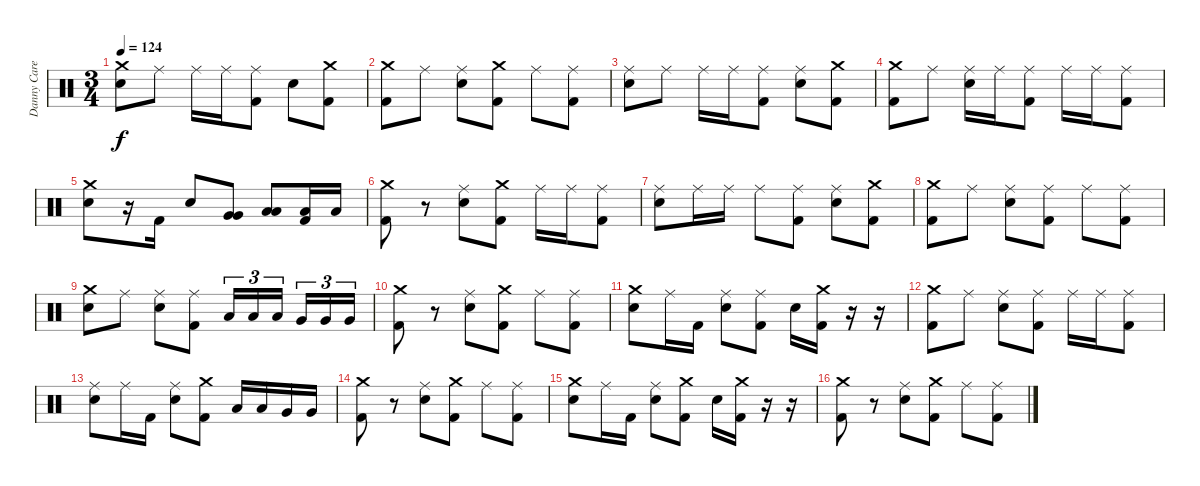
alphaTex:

\track ("Danny Carey" "Danny Care") {instrument percussion}
\staff {score}
\articulation defaults
\ts (3 4)
\tempo 124
\clef neutral
\ks c
("Crash medium (hit)" "Electric Snare (hit)").8{dy f} "Ride (middle)".8 "Ride (middle)".16 "Ride (middle)".16 ("Ride (middle)" "Kick (hit) 2").8 "Electric Snare (hit)".8 ("Crash medium (hit)" "Kick (hit) 2").8 |
("Crash medium (hit)" "Kick (hit) 2").8 "Ride (middle)".8 ("Ride (middle)" "Electric Snare (hit)").8 ("Crash medium (hit)" "Kick (hit) 2").8 "Ride (middle)".8 ("Ride (middle)" "Kick (hit) 2").8 |
("Ride (middle)" "Electric Snare (hit)").8 "Ride (middle)".8 "Ride (middle)".16 "Ride (middle)".16 ("Ride (middle)" "Kick (hit) 2").8 ("Ride (middle)" "Electric Snare (hit)").8 ("Crash medium (hit)" "Kick (hit) 2").8 |
("Crash medium (hit)" "Kick (hit) 2").8 "Ride (middle)".8 ("Ride (middle)" "Electric Snare (hit)").16 "Ride (middle)".16 ("Ride (middle)" "Kick (hit) 2").8 "Ride (middle)".16 "Ride (middle)".16 ("Ride (middle)" "Kick (hit) 2").8 |
("Crash medium (hit)" "Electric Snare (hit)").8 r.16 "Kick (hit) 2".16 "Electric Snare (hit)".8 ("Very Low Tom (hit)" "Very Low Tom (hit)").8 ("Low Floor Tom (hit)" "Low Floor Tom (hit)").8 ("Low Floor Tom (hit)" "Kick (hit) 2").16 "Low Floor Tom (hit)".16 |
("Crash medium (hit)" "Kick (hit) 2").8 r.8 ("Ride (middle)" "Electric Snare (hit)").8 ("Crash medium (hit)" "Kick (hit) 2").8 "Ride (middle)".16 "Ride (middle)".16 ("Ride (middle)" "Kick (hit) 2").8 |
("Ride (middle)" "Electric Snare (hit)").8 "Ride (middle)".16 "Ride (middle)".16 "Ride (middle)".8 ("Ride (middle)" "Kick (hit) 2").8 ("Ride (middle)" "Electric Snare (hit)").8 ("Crash medium (hit)" "Kick (hit) 2").8 |
("Crash medium (hit)" "Kick (hit) 2").8 "Ride (middle)".8 ("Ride (middle)" "Electric Snare (hit)").8 ("Ride (middle)" "Kick (hit) 2").8 "Ride (middle)".8 ("Ride (middle)" "Kick (hit) 2").8 |
("Crash medium (hit)" "Electric Snare (hit)").8 "Ride (middle)".8 ("Ride (middle)" "Electric Snare (hit)").8 ("Ride (middle)" "Kick (hit) 2").8 "Low Tom (hit)".16{tu (3 2)} "Low Tom (hit)".16{tu (3 2)} "Low Tom (hit)".16{tu (3 2)} "Very Low Tom (hit)".16{tu (3 2)} "Very Low Tom (hit)".16{tu (3 2)} "Very Low Tom (hit)".16{tu (3 2)} |
("Crash medium (hit)" "Kick (hit) 2").8 r.8 ("Ride (middle)" "Electric Snare (hit)").8 ("Crash medium (hit)" "Kick (hit) 2").8 "Ride (middle)".8 ("Ride (middle)" "Kick (hit) 2").8 |
("Crash medium (hit)" "Electric Snare (hit)").8 "Ride (middle)".16 "Kick (hit) 2".16 ("Ride (middle)" "Electric Snare (hit)").8 ("Ride (middle)" "Kick (hit) 2").8 "Electric Snare (hit)".16 ("Crash medium (hit)" "Kick (hit) 2").16 r.16 r.16 |
("Crash medium (hit)" "Kick (hit) 2").8 "Ride (middle)".8 ("Ride (middle)" "Electric Snare (hit)").8 ("Ride (middle)" "Kick (hit) 2").8 "Ride (middle)".16 "Ride (middle)".16 ("Ride (middle)" "Kick (hit) 2").8 |
("Ride (middle)" "Electric Snare (hit)").8 "Ride (middle)".16 "Kick (hit) 2".16 ("Ride (middle)" "Electric Snare (hit)").8 ("Crash medium (hit)" "Kick (hit) 2").8 "Low Tom (hit)".16 "Low Tom (hit)".16 "Very Low Tom (hit)".16 "Very Low Tom (hit)".16 |
("Crash medium (hit)" "Kick (hit) 2").8 r.8 ("Ride (middle)" "Electric Snare (hit)").8 ("Crash medium (hit)" "Kick (hit) 2").8 "Ride (middle)".8 ("Ride (middle)" "Kick (hit) 2").8 |
("Crash medium (hit)" "Electric Snare (hit)").8 "Ride (middle)".16 "Kick (hit) 2".16 ("Ride (middle)" "Electric Snare (hit)").8 ("Crash medium (hit)" "Kick (hit) 2").8 "Electric Snare (hit)".16 ("Crash medium (hit)" "Kick (hit) 2").16 r.16 r.16 |
("Crash medium (hit)" "Kick (hit) 2").8 r.8 ("Ride (middle)" "Electric Snare (hit)").8 ("Crash medium (hit)" "Kick (hit) 2").8 "Ride (middle)".8 ("Ride (middle)" "Kick (hit) 2").8
